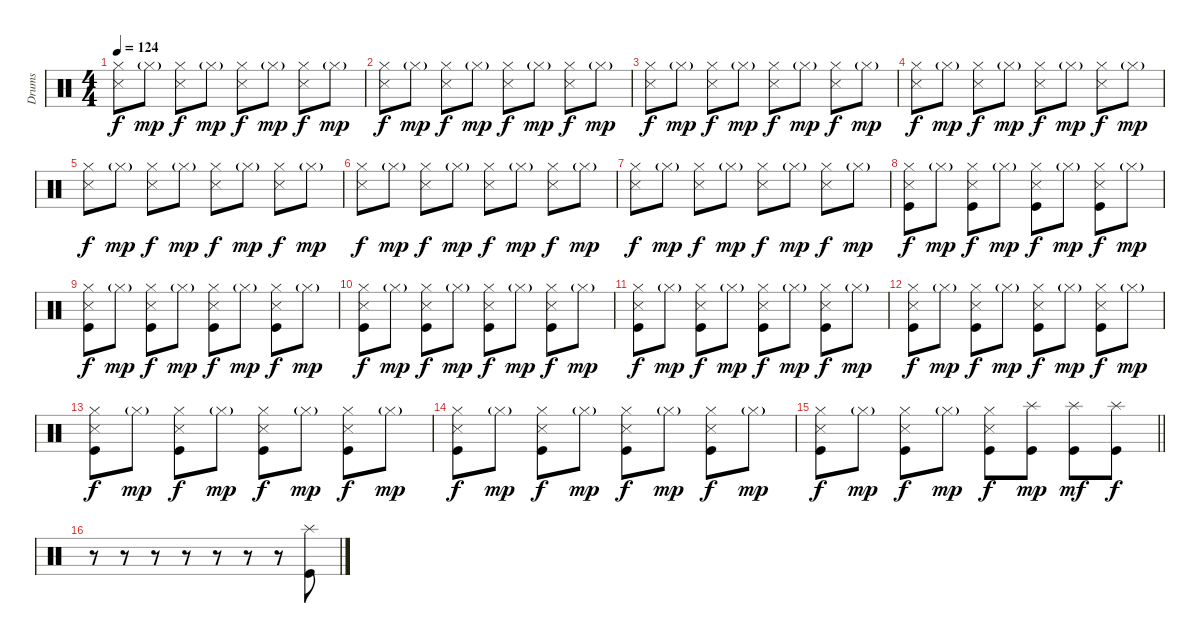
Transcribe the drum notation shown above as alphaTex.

\track ("Drums" "Drums") {instrument percussion}
\staff {score}
\articulation defaults
\ts (4 4)
\tempo 124
\clef neutral
\ks c
("Hi-Hat (closed)" "Snare (side stick) 3").8{dy f} "Hi-Hat (closed)"{g}.8{dy mp} ("Hi-Hat (closed)" "Snare (side stick) 3").8{dy f} "Hi-Hat (closed)"{g}.8{dy mp} ("Hi-Hat (closed)" "Snare (side stick) 3").8{dy f} "Hi-Hat (closed)"{g}.8{dy mp} ("Hi-Hat (closed)" "Snare (side stick) 3").8{dy f} "Hi-Hat (closed)"{g}.8{dy mp} |
("Hi-Hat (closed)" "Snare (side stick) 3").8{dy f} "Hi-Hat (closed)"{g}.8{dy mp} ("Hi-Hat (closed)" "Snare (side stick) 3").8{dy f} "Hi-Hat (closed)"{g}.8{dy mp} ("Hi-Hat (closed)" "Snare (side stick) 3").8{dy f} "Hi-Hat (closed)"{g}.8{dy mp} ("Hi-Hat (closed)" "Snare (side stick) 3").8{dy f} "Hi-Hat (closed)"{g}.8{dy mp} |
("Hi-Hat (closed)" "Snare (side stick) 3").8{dy f} "Hi-Hat (closed)"{g}.8{dy mp} ("Hi-Hat (closed)" "Snare (side stick) 3").8{dy f} "Hi-Hat (closed)"{g}.8{dy mp} ("Hi-Hat (closed)" "Snare (side stick) 3").8{dy f} "Hi-Hat (closed)"{g}.8{dy mp} ("Hi-Hat (closed)" "Snare (side stick) 3").8{dy f} "Hi-Hat (closed)"{g}.8{dy mp} |
("Hi-Hat (closed)" "Snare (side stick) 3").8{dy f} "Hi-Hat (closed)"{g}.8{dy mp} ("Hi-Hat (closed)" "Snare (side stick) 3").8{dy f} "Hi-Hat (closed)"{g}.8{dy mp} ("Hi-Hat (closed)" "Snare (side stick) 3").8{dy f} "Hi-Hat (closed)"{g}.8{dy mp} ("Hi-Hat (closed)" "Snare (side stick) 3").8{dy f} "Hi-Hat (closed)"{g}.8{dy mp} |
("Hi-Hat (closed)" "Snare (side stick) 3").8{dy f} "Hi-Hat (closed)"{g}.8{dy mp} ("Hi-Hat (closed)" "Snare (side stick) 3").8{dy f} "Hi-Hat (closed)"{g}.8{dy mp} ("Hi-Hat (closed)" "Snare (side stick) 3").8{dy f} "Hi-Hat (closed)"{g}.8{dy mp} ("Hi-Hat (closed)" "Snare (side stick) 3").8{dy f} "Hi-Hat (closed)"{g}.8{dy mp} |
("Hi-Hat (closed)" "Snare (side stick) 3").8{dy f} "Hi-Hat (closed)"{g}.8{dy mp} ("Hi-Hat (closed)" "Snare (side stick) 3").8{dy f} "Hi-Hat (closed)"{g}.8{dy mp} ("Hi-Hat (closed)" "Snare (side stick) 3").8{dy f} "Hi-Hat (closed)"{g}.8{dy mp} ("Hi-Hat (closed)" "Snare (side stick) 3").8{dy f} "Hi-Hat (closed)"{g}.8{dy mp} |
("Hi-Hat (closed)" "Snare (side stick) 3").8{dy f} "Hi-Hat (closed)"{g}.8{dy mp} ("Hi-Hat (closed)" "Snare (side stick) 3").8{dy f} "Hi-Hat (closed)"{g}.8{dy mp} ("Hi-Hat (closed)" "Snare (side stick) 3").8{dy f} "Hi-Hat (closed)"{g}.8{dy mp} ("Hi-Hat (closed)" "Snare (side stick) 3").8{dy f} "Hi-Hat (closed)"{g}.8{dy mp} |
("Hi-Hat (closed)" "Snare (side stick) 3" "Kick (hit)").8{dy f} "Hi-Hat (closed)"{g}.8{dy mp} ("Hi-Hat (closed)" "Snare (side stick) 3" "Kick (hit)").8{dy f} "Hi-Hat (closed)"{g}.8{dy mp} ("Hi-Hat (closed)" "Snare (side stick) 3" "Kick (hit)").8{dy f} "Hi-Hat (closed)"{g}.8{dy mp} ("Hi-Hat (closed)" "Snare (side stick) 3" "Kick (hit)").8{dy f} "Hi-Hat (closed)"{g}.8{dy mp} |
("Hi-Hat (closed)" "Snare (side stick) 3" "Kick (hit)").8{dy f} "Hi-Hat (closed)"{g}.8{dy mp} ("Hi-Hat (closed)" "Snare (side stick) 3" "Kick (hit)").8{dy f} "Hi-Hat (closed)"{g}.8{dy mp} ("Hi-Hat (closed)" "Snare (side stick) 3" "Kick (hit)").8{dy f} "Hi-Hat (closed)"{g}.8{dy mp} ("Hi-Hat (closed)" "Snare (side stick) 3" "Kick (hit)").8{dy f} "Hi-Hat (closed)"{g}.8{dy mp} |
("Hi-Hat (closed)" "Snare (side stick) 3" "Kick (hit)").8{dy f} "Hi-Hat (closed)"{g}.8{dy mp} ("Hi-Hat (closed)" "Snare (side stick) 3" "Kick (hit)").8{dy f} "Hi-Hat (closed)"{g}.8{dy mp} ("Hi-Hat (closed)" "Snare (side stick) 3" "Kick (hit)").8{dy f} "Hi-Hat (closed)"{g}.8{dy mp} ("Hi-Hat (closed)" "Snare (side stick) 3" "Kick (hit)").8{dy f} "Hi-Hat (closed)"{g}.8{dy mp} |
("Hi-Hat (closed)" "Snare (side stick) 3" "Kick (hit)").8{dy f} "Hi-Hat (closed)"{g}.8{dy mp} ("Hi-Hat (closed)" "Snare (side stick) 3" "Kick (hit)").8{dy f} "Hi-Hat (closed)"{g}.8{dy mp} ("Hi-Hat (closed)" "Snare (side stick) 3" "Kick (hit)").8{dy f} "Hi-Hat (closed)"{g}.8{dy mp} ("Hi-Hat (closed)" "Snare (side stick) 3" "Kick (hit)").8{dy f} "Hi-Hat (closed)"{g}.8{dy mp} |
("Hi-Hat (closed)" "Snare (side stick) 3" "Kick (hit)").8{dy f} "Hi-Hat (closed)"{g}.8{dy mp} ("Hi-Hat (closed)" "Snare (side stick) 3" "Kick (hit)").8{dy f} "Hi-Hat (closed)"{g}.8{dy mp} ("Hi-Hat (closed)" "Snare (side stick) 3" "Kick (hit)").8{dy f} "Hi-Hat (closed)"{g}.8{dy mp} ("Hi-Hat (closed)" "Snare (side stick) 3" "Kick (hit)").8{dy f} "Hi-Hat (closed)"{g}.8{dy mp} |
("Hi-Hat (closed)" "Snare (side stick) 3" "Kick (hit)").8{dy f} "Hi-Hat (closed)"{g}.8{dy mp} ("Hi-Hat (closed)" "Snare (side stick) 3" "Kick (hit)").8{dy f} "Hi-Hat (closed)"{g}.8{dy mp} ("Hi-Hat (closed)" "Snare (side stick) 3" "Kick (hit)").8{dy f} "Hi-Hat (closed)"{g}.8{dy mp} ("Hi-Hat (closed)" "Snare (side stick) 3" "Kick (hit)").8{dy f} "Hi-Hat (closed)"{g}.8{dy mp} |
("Hi-Hat (closed)" "Snare (side stick) 3" "Kick (hit)").8{dy f} "Hi-Hat (closed)"{g}.8{dy mp} ("Hi-Hat (closed)" "Snare (side stick) 3" "Kick (hit)").8{dy f} "Hi-Hat (closed)"{g}.8{dy mp} ("Hi-Hat (closed)" "Snare (side stick) 3" "Kick (hit)").8{dy f} "Hi-Hat (closed)"{g}.8{dy mp} ("Hi-Hat (closed)" "Snare (side stick) 3" "Kick (hit)").8{dy f} "Hi-Hat (closed)"{g}.8{dy mp} |
\barLineRight lightlight
("Hi-Hat (closed)" "Snare (side stick) 3" "Kick (hit)").8{dy f} "Hi-Hat (closed)"{g}.8{dy mp} ("Hi-Hat (closed)" "Snare (side stick) 3" "Kick (hit)").8{dy f} "Hi-Hat (closed)"{g}.8{dy mp} ("Hi-Hat (closed)" "Snare (side stick) 3" "Kick (hit)").8{dy f} ("Splash (hit)" "Kick (hit)").8{dy mp} ("Splash (hit)" "Kick (hit)").8{dy mf} ("Splash (hit)" "Kick (hit)").8{dy f} |
r.8 r.8 r.8 r.8 r.8 r.8 r.8 ("Splash (hit)" "Kick (hit)").8
